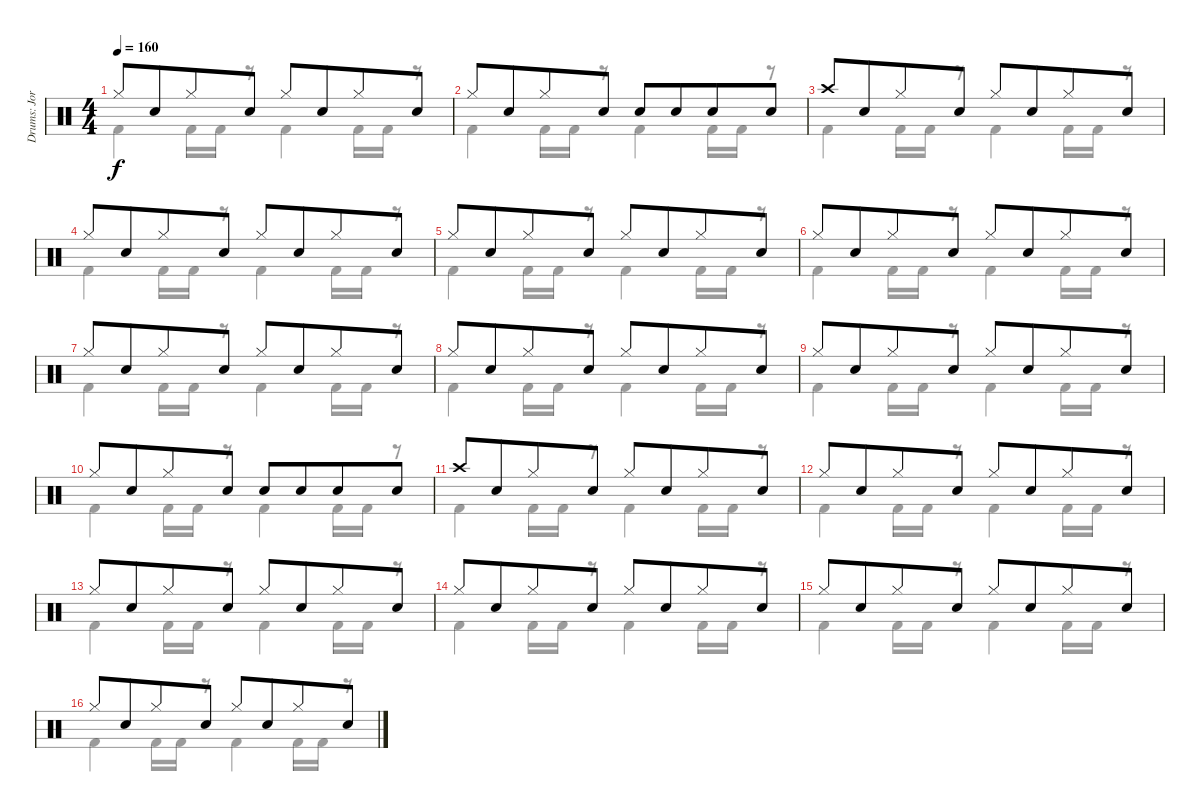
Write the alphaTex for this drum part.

\track ("Drums: Jorg" "Drums: Jor") {instrument percussion}
\staff {score}
\articulation defaults
\voice
\ts (4 4)
\tempo 160
\clef neutral
\ks c "Hi-Hat (closed)".8{dy f} "Snare (hit) 2".8{beam merge} "Hi-Hat (closed)".8 "Snare (hit) 2".8 "Hi-Hat (closed)".8 "Snare (hit) 2".8{beam merge} "Hi-Hat (closed)".8 "Snare (hit) 2".8
|
"Hi-Hat (closed)".8 "Snare (hit) 2".8{beam merge} "Hi-Hat (closed)".8 "Snare (hit) 2".8 "Snare (hit) 2".8 "Snare (hit) 2".8{beam merge} "Snare (hit) 2".8 "Snare (hit) 2".8 |
"Crash high (hit)".8 "Snare (hit) 2".8{beam merge} "Hi-Hat (closed)".8 "Snare (hit) 2".8{beam split} "Hi-Hat (closed)".8 "Snare (hit) 2".8{beam merge} "Hi-Hat (closed)".8 "Snare (hit) 2".8 |
"Hi-Hat (closed)".8 "Snare (hit) 2".8{beam merge} "Hi-Hat (closed)".8 "Snare (hit) 2".8{beam split} "Hi-Hat (closed)".8 "Snare (hit) 2".8{beam merge} "Hi-Hat (closed)".8 "Snare (hit) 2".8 |
"Hi-Hat (closed)".8 "Snare (hit) 2".8{beam merge} "Hi-Hat (closed)".8 "Snare (hit) 2".8{beam split} "Hi-Hat (closed)".8 "Snare (hit) 2".8{beam merge} "Hi-Hat (closed)".8 "Snare (hit) 2".8 |
"Hi-Hat (closed)".8 "Snare (hit) 2".8{beam merge} "Hi-Hat (closed)".8 "Snare (hit) 2".8{beam split} "Hi-Hat (closed)".8 "Snare (hit) 2".8{beam merge} "Hi-Hat (closed)".8 "Snare (hit) 2".8 |
"Hi-Hat (closed)".8 "Snare (hit) 2".8{beam merge} "Hi-Hat (closed)".8 "Snare (hit) 2".8{beam split} "Hi-Hat (closed)".8 "Snare (hit) 2".8{beam merge} "Hi-Hat (closed)".8 "Snare (hit) 2".8 |
"Hi-Hat (closed)".8 "Snare (hit) 2".8{beam merge} "Hi-Hat (closed)".8 "Snare (hit) 2".8{beam split} "Hi-Hat (closed)".8 "Snare (hit) 2".8{beam merge} "Hi-Hat (closed)".8 "Snare (hit) 2".8 |
"Hi-Hat (closed)".8 "Snare (hit) 2".8{beam merge} "Hi-Hat (closed)".8 "Snare (hit) 2".8 "Hi-Hat (closed)".8 "Snare (hit) 2".8{beam merge} "Hi-Hat (closed)".8 "Snare (hit) 2".8 |
"Hi-Hat (closed)".8 "Snare (hit) 2".8{beam merge} "Hi-Hat (closed)".8 "Snare (hit) 2".8 "Snare (hit) 2".8 "Snare (hit) 2".8{beam merge} "Snare (hit) 2".8 "Snare (hit) 2".8 |
"Crash high (hit)".8 "Snare (hit) 2".8{beam merge} "Hi-Hat (closed)".8 "Snare (hit) 2".8{beam split} "Hi-Hat (closed)".8 "Snare (hit) 2".8{beam merge} "Hi-Hat (closed)".8 "Snare (hit) 2".8 |
"Hi-Hat (closed)".8 "Snare (hit) 2".8{beam merge} "Hi-Hat (closed)".8 "Snare (hit) 2".8{beam split} "Hi-Hat (closed)".8 "Snare (hit) 2".8{beam merge} "Hi-Hat (closed)".8 "Snare (hit) 2".8 |
"Hi-Hat (closed)".8 "Snare (hit) 2".8{beam merge} "Hi-Hat (closed)".8 "Snare (hit) 2".8{beam split} "Hi-Hat (closed)".8 "Snare (hit) 2".8{beam merge} "Hi-Hat (closed)".8 "Snare (hit) 2".8 |
"Hi-Hat (closed)".8 "Snare (hit) 2".8{beam merge} "Hi-Hat (closed)".8 "Snare (hit) 2".8{beam split} "Hi-Hat (closed)".8 "Snare (hit) 2".8{beam merge} "Hi-Hat (closed)".8 "Snare (hit) 2".8 |
"Hi-Hat (closed)".8 "Snare (hit) 2".8{beam merge} "Hi-Hat (closed)".8 "Snare (hit) 2".8{beam split} "Hi-Hat (closed)".8 "Snare (hit) 2".8{beam merge} "Hi-Hat (closed)".8 "Snare (hit) 2".8 |
"Hi-Hat (closed)".8 "Snare (hit) 2".8{beam merge} "Hi-Hat (closed)".8 "Snare (hit) 2".8{beam split} "Hi-Hat (closed)".8 "Snare (hit) 2".8{beam merge} "Hi-Hat (closed)".8 "Snare (hit) 2".8
\voice
\clef neutral
\ottava regular
\simile none
\ks c "Kick (hit) 2".4{dy f} "Kick (hit) 2".16 "Kick (hit) 2".16
r.8 "Kick (hit) 2".4 "Kick (hit) 2".16 "Kick (hit) 2".16 r.8 |
"Kick (hit) 2".4 "Kick (hit) 2".16 "Kick (hit) 2".16 r.8 "Kick (hit) 2".4 "Kick (hit) 2".16 "Kick (hit) 2".16 r.8 |
"Kick (hit) 2".4 "Kick (hit) 2".16 "Kick (hit) 2".16 r.8 "Kick (hit) 2".4 "Kick (hit) 2".16 "Kick (hit) 2".16 r.8 |
"Kick (hit) 2".4 "Kick (hit) 2".16 "Kick (hit) 2".16 r.8 "Kick (hit) 2".4 "Kick (hit) 2".16 "Kick (hit) 2".16 r.8 |
"Kick (hit) 2".4 "Kick (hit) 2".16 "Kick (hit) 2".16 r.8 "Kick (hit) 2".4 "Kick (hit) 2".16 "Kick (hit) 2".16 r.8 |
"Kick (hit) 2".4 "Kick (hit) 2".16 "Kick (hit) 2".16 r.8 "Kick (hit) 2".4 "Kick (hit) 2".16 "Kick (hit) 2".16 r.8 |
"Kick (hit) 2".4 "Kick (hit) 2".16 "Kick (hit) 2".16 r.8 "Kick (hit) 2".4 "Kick (hit) 2".16 "Kick (hit) 2".16 r.8 |
"Kick (hit) 2".4 "Kick (hit) 2".16 "Kick (hit) 2".16 r.8 "Kick (hit) 2".4 "Kick (hit) 2".16 "Kick (hit) 2".16 r.8 |
"Kick (hit) 2".4 "Kick (hit) 2".16 "Kick (hit) 2".16 r.8 "Kick (hit) 2".4 "Kick (hit) 2".16 "Kick (hit) 2".16 r.8 |
"Kick (hit) 2".4 "Kick (hit) 2".16 "Kick (hit) 2".16 r.8 "Kick (hit) 2".4 "Kick (hit) 2".16 "Kick (hit) 2".16 r.8 |
"Kick (hit) 2".4 "Kick (hit) 2".16 "Kick (hit) 2".16 r.8 "Kick (hit) 2".4 "Kick (hit) 2".16 "Kick (hit) 2".16 r.8 |
"Kick (hit) 2".4 "Kick (hit) 2".16 "Kick (hit) 2".16 r.8 "Kick (hit) 2".4 "Kick (hit) 2".16 "Kick (hit) 2".16 r.8 |
"Kick (hit) 2".4 "Kick (hit) 2".16 "Kick (hit) 2".16 r.8 "Kick (hit) 2".4 "Kick (hit) 2".16 "Kick (hit) 2".16 r.8 |
"Kick (hit) 2".4 "Kick (hit) 2".16 "Kick (hit) 2".16 r.8 "Kick (hit) 2".4 "Kick (hit) 2".16 "Kick (hit) 2".16 r.8 |
"Kick (hit) 2".4 "Kick (hit) 2".16 "Kick (hit) 2".16 r.8 "Kick (hit) 2".4 "Kick (hit) 2".16 "Kick (hit) 2".16 r.8 |
"Kick (hit) 2".4 "Kick (hit) 2".16 "Kick (hit) 2".16 r.8 "Kick (hit) 2".4 "Kick (hit) 2".16 "Kick (hit) 2".16 r.8
